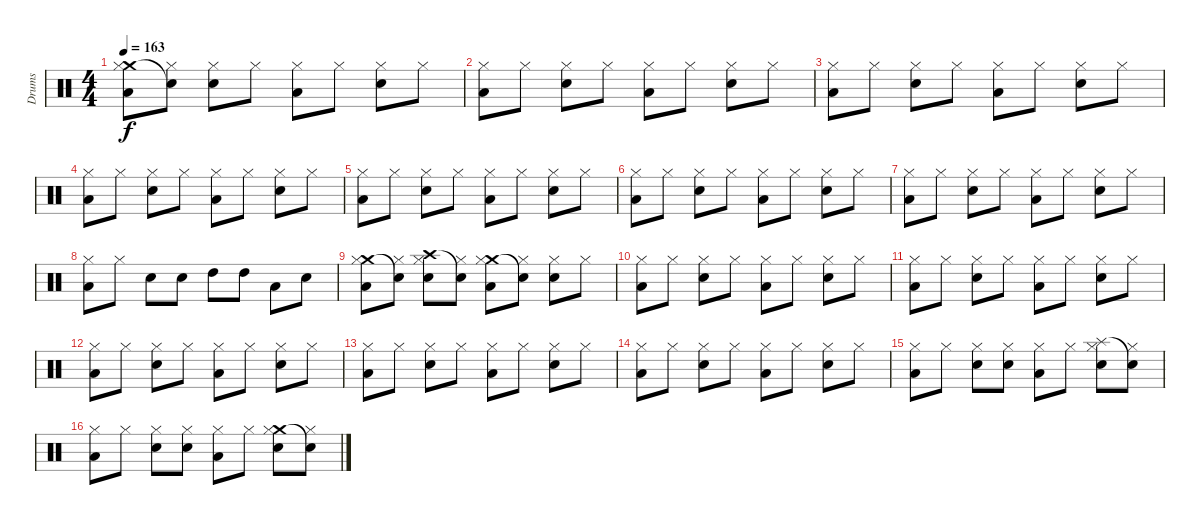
\track ("Drums" "Drums") {instrument percussion}
\staff {score}
\articulation defaults
\ts (4 4)
\tempo 163
\clef neutral
\ks c
("Crash medium (hit)" "Low Tom (hit)" "Hi-Hat (closed)").8{dy f} ("Snare (hit)"{t} "Hi-Hat (closed)").8 ("Snare (hit) 2" "Hi-Hat (closed)").8 "Hi-Hat (closed)".8 ("Low Tom (hit)" "Hi-Hat (closed)").8 "Hi-Hat (closed)".8 ("Snare (hit) 2" "Hi-Hat (closed)").8 "Hi-Hat (closed)".8 |
("Low Tom (hit)" "Hi-Hat (closed)").8 "Hi-Hat (closed)".8 ("Snare (hit) 2" "Hi-Hat (closed)").8 "Hi-Hat (closed)".8 ("Low Tom (hit)" "Hi-Hat (closed)").8 "Hi-Hat (closed)".8 ("Snare (hit) 2" "Hi-Hat (closed)").8 "Hi-Hat (closed)".8 |
("Low Tom (hit)" "Hi-Hat (closed)").8 "Hi-Hat (closed)".8 ("Snare (hit) 2" "Hi-Hat (closed)").8 "Hi-Hat (closed)".8 ("Low Tom (hit)" "Hi-Hat (closed)").8 "Hi-Hat (closed)".8 ("Snare (hit) 2" "Hi-Hat (closed)").8 "Hi-Hat (closed)".8 |
("Low Tom (hit)" "Hi-Hat (closed)").8 "Hi-Hat (closed)".8 ("Snare (hit) 2" "Hi-Hat (closed)").8 "Hi-Hat (closed)".8 ("Low Tom (hit)" "Hi-Hat (closed)").8 "Hi-Hat (closed)".8 ("Snare (hit) 2" "Hi-Hat (closed)").8 "Hi-Hat (closed)".8 |
("Low Tom (hit)" "Hi-Hat (closed)").8 "Hi-Hat (closed)".8 ("Snare (hit) 2" "Hi-Hat (closed)").8 "Hi-Hat (closed)".8 ("Low Tom (hit)" "Hi-Hat (closed)").8 "Hi-Hat (closed)".8 ("Snare (hit) 2" "Hi-Hat (closed)").8 "Hi-Hat (closed)".8 |
("Low Tom (hit)" "Hi-Hat (closed)").8 "Hi-Hat (closed)".8 ("Snare (hit) 2" "Hi-Hat (closed)").8 "Hi-Hat (closed)".8 ("Low Tom (hit)" "Hi-Hat (closed)").8 "Hi-Hat (closed)".8 ("Snare (hit) 2" "Hi-Hat (closed)").8 "Hi-Hat (closed)".8 |
("Low Tom (hit)" "Hi-Hat (closed)").8 "Hi-Hat (closed)".8 ("Snare (hit) 2" "Hi-Hat (closed)").8 "Hi-Hat (closed)".8 ("Low Tom (hit)" "Hi-Hat (closed)").8 "Hi-Hat (closed)".8 ("Snare (hit) 2" "Hi-Hat (closed)").8 "Hi-Hat (closed)".8 |
("Low Tom (hit)" "Hi-Hat (closed)").8 "Hi-Hat (closed)".8 "Snare (hit) 2".8 "Snare (hit) 2".8 "High Tom (hit)".8 "High Tom (hit)".8 "Low Tom (hit)".8 "Snare (hit) 2".8 |
("Crash medium (hit)" "Low Tom (hit)" "Hi-Hat (closed)").8 ("Snare (hit)"{t} "Hi-Hat (closed)").8 ("Crash high (hit)" "Snare (hit) 2" "Hi-Hat (closed)").8 ("Snare (hit)"{t} "Hi-Hat (closed)").8 ("Crash medium (hit)" "Low Tom (hit)" "Hi-Hat (closed)").8 ("Snare (hit)"{t} "Hi-Hat (closed)").8 ("Snare (hit) 2" "Hi-Hat (closed)").8 "Hi-Hat (closed)".8 |
("Low Tom (hit)" "Hi-Hat (closed)").8 "Hi-Hat (closed)".8 ("Snare (hit) 2" "Hi-Hat (closed)").8 "Hi-Hat (closed)".8 ("Low Tom (hit)" "Hi-Hat (closed)").8 "Hi-Hat (closed)".8 ("Snare (hit) 2" "Hi-Hat (closed)").8 "Hi-Hat (closed)".8 |
("Low Tom (hit)" "Hi-Hat (closed)").8 "Hi-Hat (closed)".8 ("Snare (hit) 2" "Hi-Hat (closed)").8 "Hi-Hat (closed)".8 ("Low Tom (hit)" "Hi-Hat (closed)").8 "Hi-Hat (closed)".8 ("Snare (hit) 2" "Hi-Hat (closed)").8 "Hi-Hat (closed)".8 |
("Low Tom (hit)" "Hi-Hat (closed)").8 "Hi-Hat (closed)".8 ("Snare (hit) 2" "Hi-Hat (closed)").8 "Hi-Hat (closed)".8 ("Low Tom (hit)" "Hi-Hat (closed)").8 "Hi-Hat (closed)".8 ("Snare (hit) 2" "Hi-Hat (closed)").8 "Hi-Hat (closed)".8 |
("Low Tom (hit)" "Hi-Hat (closed)").8 "Hi-Hat (closed)".8 ("Snare (hit) 2" "Hi-Hat (closed)").8 "Hi-Hat (closed)".8 ("Low Tom (hit)" "Hi-Hat (closed)").8 "Hi-Hat (closed)".8 ("Snare (hit) 2" "Hi-Hat (closed)").8 "Hi-Hat (closed)".8 |
("Low Tom (hit)" "Hi-Hat (closed)").8 "Hi-Hat (closed)".8 ("Snare (hit) 2" "Hi-Hat (closed)").8 "Hi-Hat (closed)".8 ("Low Tom (hit)" "Hi-Hat (closed)").8 "Hi-Hat (closed)".8 ("Snare (hit) 2" "Hi-Hat (closed)").8 "Hi-Hat (closed)".8 |
("Low Tom (hit)" "Hi-Hat (closed)").8 "Hi-Hat (closed)".8 ("Snare (hit) 2" "Hi-Hat (closed)").8 ("Snare (hit) 2" "Hi-Hat (closed)").8 ("Low Tom (hit)" "Hi-Hat (closed)").8 "Hi-Hat (closed)".8 ("Splash (hit)" "Snare (hit) 2" "Hi-Hat (closed)").8 ("Snare (hit)"{t} "Hi-Hat (closed)").8 |
("Low Tom (hit)" "Hi-Hat (closed)").8 "Hi-Hat (closed)".8 ("Snare (hit) 2" "Hi-Hat (closed)").8 ("Snare (hit) 2" "Hi-Hat (closed)").8 ("Low Tom (hit)" "Hi-Hat (closed)").8 "Hi-Hat (closed)".8 ("Crash medium (hit)" "Snare (hit) 2" "Hi-Hat (closed)").8 ("Snare (hit)"{t} "Hi-Hat (closed)").8
